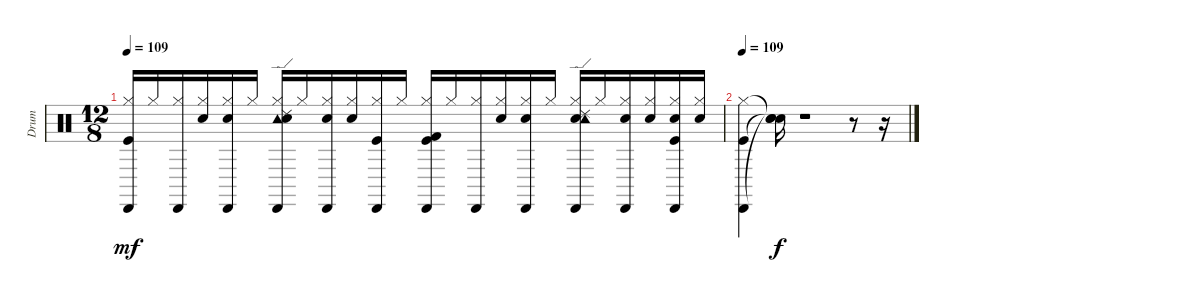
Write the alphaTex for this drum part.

\track ("Drum" "Drum") {instrument percussion}
\staff {score}
\articulation defaults
\ts (12 8)
\tempo 109
\clef neutral
\ks c
("Kick (hit)" "Cabasa (hit)" "Hi-Hat (closed)").16{dy mf} "Hi-Hat (closed)".16 ("Cabasa (hit)" "Hi-Hat (closed)").16 ("Hi-Hat (closed)" "Electric Snare (hit)").16 ("Electric Snare (hit)" "Hi-Hat (closed)" "Cabasa (hit)").16 "Hi-Hat (closed)".16 ("Hi-Hat (closed)" "Tambourine (hit)" "Snare (hit) 2" "Ride (edge) 2" "Cabasa (hit)").16 "Hi-Hat (closed)".16 ("Cabasa (hit)" "Electric Snare (hit)" "Hi-Hat (closed)").16 ("Electric Snare (hit)" "Hi-Hat (closed)").16 ("Hi-Hat (closed)" "Cabasa (hit)" "Kick (hit)").16 "Hi-Hat (closed)".16 ("Hi-Hat (closed)" "Kick (hit) 2" "Cabasa (hit)" "Kick (hit)").16 "Hi-Hat (closed)".16 ("Cabasa (hit)" "Hi-Hat (closed)").16 ("Hi-Hat (closed)" "Electric Snare (hit)").16 ("Cabasa (hit)" "Hi-Hat (closed)" "Electric Snare (hit)").16 "Hi-Hat (closed)".16 ("Cabasa (hit)" "Snare (hit) 2" "Tambourine (hit)" "Hi-Hat (closed)" "Ride (edge) 2").16 "Hi-Hat (closed)".16 ("Electric Snare (hit)" "Hi-Hat (closed)" "Cabasa (hit)").16 ("Hi-Hat (closed)" "Electric Snare (hit)").16 ("Kick (hit)" "Cabasa (hit)" "Electric Snare (hit)" "Hi-Hat (closed)").16 ("Hi-Hat (closed)" "Electric Snare (hit)").16 |
\tempo 109
("Hi-Hat (closed)" "Cabasa (hit)" "Kick (hit)").4 ("Snare (hit)"{t} "Snare (hit)"{t} "Snare (hit)"{t}).16{dy f} r.1 r.8 r.16
